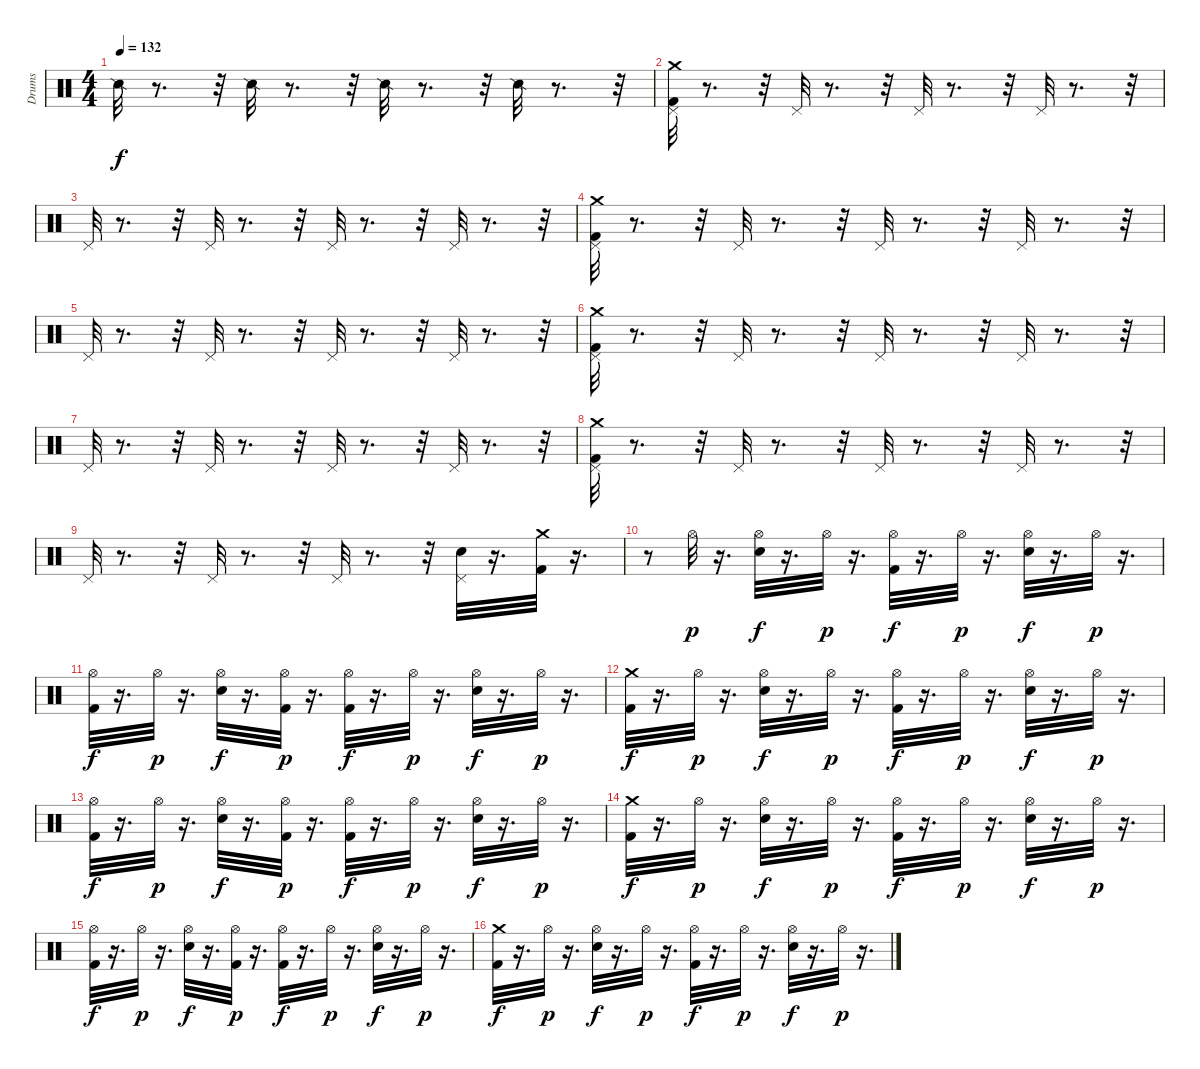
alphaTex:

\track ("Drums" "Drums") {instrument percussion}
\staff {score}
\articulation defaults
\ts (4 4)
\tempo 132
\clef neutral
\ks c "Snare (side stick) 2".32{dy f}
r.8{d} r.32 "Snare (side stick) 2".32 r.8{d} r.32 "Snare (side stick) 2".32 r.8{d} r.32 "Snare (side stick) 2".32 r.8{d} r.32 |
("Pedal Hi-Hat (hit)" "Kick (hit) 2" "Crash medium (hit)").32 r.8{d} r.32 "Pedal Hi-Hat (hit)".32 r.8{d} r.32 "Pedal Hi-Hat (hit)".32 r.8{d} r.32 "Pedal Hi-Hat (hit)".32 r.8{d} r.32 |
"Pedal Hi-Hat (hit)".32 r.8{d} r.32 "Pedal Hi-Hat (hit)".32 r.8{d} r.32 "Pedal Hi-Hat (hit)".32 r.8{d} r.32 "Pedal Hi-Hat (hit)".32 r.8{d} r.32 |
("Crash medium (hit)" "Kick (hit) 2" "Pedal Hi-Hat (hit)").32 r.8{d} r.32 "Pedal Hi-Hat (hit)".32 r.8{d} r.32 "Pedal Hi-Hat (hit)".32 r.8{d} r.32 "Pedal Hi-Hat (hit)".32 r.8{d} r.32 |
"Pedal Hi-Hat (hit)".32 r.8{d} r.32 "Pedal Hi-Hat (hit)".32 r.8{d} r.32 "Pedal Hi-Hat (hit)".32 r.8{d} r.32 "Pedal Hi-Hat (hit)".32 r.8{d} r.32 |
("Pedal Hi-Hat (hit)" "Kick (hit) 2" "Crash medium (hit)").32 r.8{d} r.32 "Pedal Hi-Hat (hit)".32 r.8{d} r.32 "Pedal Hi-Hat (hit)".32 r.8{d} r.32 "Pedal Hi-Hat (hit)".32 r.8{d} r.32 |
"Pedal Hi-Hat (hit)".32 r.8{d} r.32 "Pedal Hi-Hat (hit)".32 r.8{d} r.32 "Pedal Hi-Hat (hit)".32 r.8{d} r.32 "Pedal Hi-Hat (hit)".32 r.8{d} r.32 |
("Crash medium (hit)" "Kick (hit) 2" "Pedal Hi-Hat (hit)").32 r.8{d} r.32 "Pedal Hi-Hat (hit)".32 r.8{d} r.32 "Pedal Hi-Hat (hit)".32 r.8{d} r.32 "Pedal Hi-Hat (hit)".32 r.8{d} r.32 |
"Pedal Hi-Hat (hit)".32 r.8{d} r.32 "Pedal Hi-Hat (hit)".32 r.8{d} r.32 "Pedal Hi-Hat (hit)".32 r.8{d} r.32 ("Electric Snare (hit)" "Pedal Hi-Hat (hit)").32 r.16{d} ("Kick (hit) 2" "Crash medium (hit)").32 r.16{d} |
r.8 "Hi-Hat (open)".32{dy p} r.16{d} ("Electric Snare (hit)" "Hi-Hat (open)").32{dy f} r.16{d} "Hi-Hat (open)".32{dy p} r.16{d} ("Hi-Hat (open)" "Kick (hit) 2").32{dy f} r.16{d} "Hi-Hat (open)".32{dy p} r.16{d} ("Hi-Hat (open)" "Electric Snare (hit)").32{dy f} r.16{d} "Hi-Hat (open)".32{dy p} r.16{d} |
("Hi-Hat (open)" "Kick (hit) 2").32{dy f} r.16{d} "Hi-Hat (open)".32{dy p} r.16{d} ("Hi-Hat (open)" "Electric Snare (hit)").32{dy f} r.16{d} ("Kick (hit) 2" "Hi-Hat (open)").32{dy p} r.16{d} ("Hi-Hat (open)" "Kick (hit) 2").32{dy f} r.16{d} "Hi-Hat (open)".32{dy p} r.16{d} ("Hi-Hat (open)" "Electric Snare (hit)").32{dy f} r.16{d} "Hi-Hat (open)".32{dy p} r.16{d} |
("Kick (hit) 2" "Crash medium (hit)").32{dy f} r.16{d} "Hi-Hat (open)".32{dy p} r.16{d} ("Electric Snare (hit)" "Hi-Hat (open)").32{dy f} r.16{d} "Hi-Hat (open)".32{dy p} r.16{d} ("Hi-Hat (open)" "Kick (hit) 2").32{dy f} r.16{d} "Hi-Hat (open)".32{dy p} r.16{d} ("Electric Snare (hit)" "Hi-Hat (open)").32{dy f} r.16{d} "Hi-Hat (open)".32{dy p} r.16{d} |
("Hi-Hat (open)" "Kick (hit) 2").32{dy f} r.16{d} "Hi-Hat (open)".32{dy p} r.16{d} ("Hi-Hat (open)" "Electric Snare (hit)").32{dy f} r.16{d} ("Kick (hit) 2" "Hi-Hat (open)").32{dy p} r.16{d} ("Hi-Hat (open)" "Kick (hit) 2").32{dy f} r.16{d} "Hi-Hat (open)".32{dy p} r.16{d} ("Hi-Hat (open)" "Electric Snare (hit)").32{dy f} r.16{d} "Hi-Hat (open)".32{dy p} r.16{d} |
("Crash medium (hit)" "Kick (hit) 2").32{dy f} r.16{d} "Hi-Hat (open)".32{dy p} r.16{d} ("Electric Snare (hit)" "Hi-Hat (open)").32{dy f} r.16{d} "Hi-Hat (open)".32{dy p} r.16{d} ("Kick (hit) 2" "Hi-Hat (open)").32{dy f} r.16{d} "Hi-Hat (open)".32{dy p} r.16{d} ("Hi-Hat (open)" "Electric Snare (hit)").32{dy f} r.16{d} "Hi-Hat (open)".32{dy p} r.16{d} |
("Hi-Hat (open)" "Kick (hit) 2").32{dy f} r.16{d} "Hi-Hat (open)".32{dy p} r.16{d} ("Hi-Hat (open)" "Electric Snare (hit)").32{dy f} r.16{d} ("Kick (hit) 2" "Hi-Hat (open)").32{dy p} r.16{d} ("Kick (hit) 2" "Hi-Hat (open)").32{dy f} r.16{d} "Hi-Hat (open)".32{dy p} r.16{d} ("Hi-Hat (open)" "Electric Snare (hit)").32{dy f} r.16{d} "Hi-Hat (open)".32{dy p} r.16{d} |
("Kick (hit) 2" "Crash medium (hit)").32{dy f} r.16{d} "Hi-Hat (open)".32{dy p} r.16{d} ("Electric Snare (hit)" "Hi-Hat (open)").32{dy f} r.16{d} "Hi-Hat (open)".32{dy p} r.16{d} ("Kick (hit) 2" "Hi-Hat (open)").32{dy f} r.16{d} "Hi-Hat (open)".32{dy p} r.16{d} ("Hi-Hat (open)" "Electric Snare (hit)").32{dy f} r.16{d} "Hi-Hat (open)".32{dy p} r.16{d}
